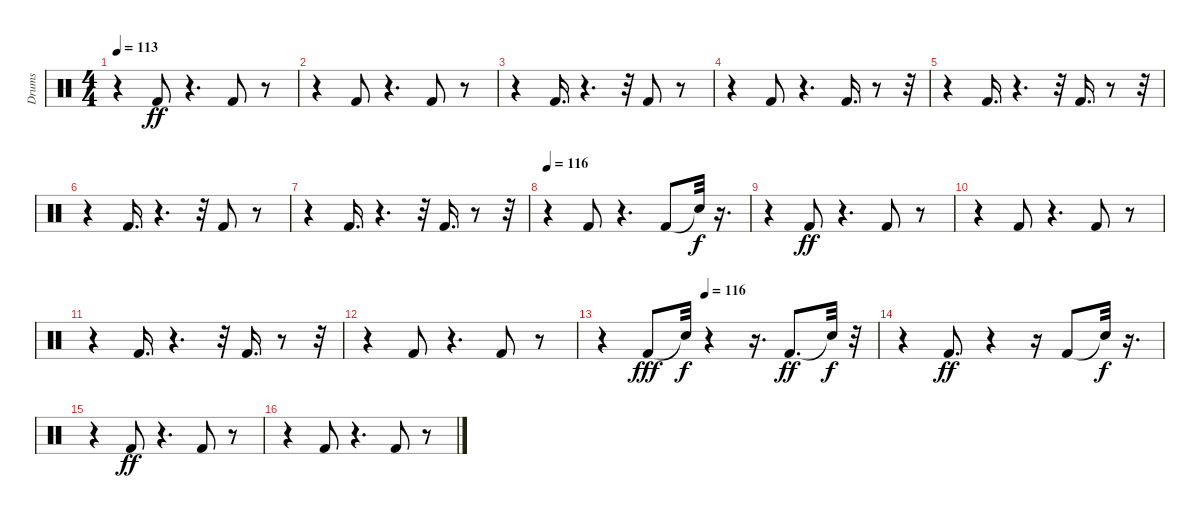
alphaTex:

\track ("Drums" "Drums") {instrument percussion}
\staff {score}
\articulation defaults
\ts (4 4)
\tempo 113
\clef neutral
\ks c
r.4{dy ff} "Kick (hit) 2".8 r.4{d} "Kick (hit) 2".8 r.8 |
r.4 "Kick (hit) 2".8 r.4{d} "Kick (hit) 2".8 r.8 |
r.4 "Kick (hit) 2".16{d} r.4{d} r.32 "Kick (hit) 2".8 r.8 |
r.4 "Kick (hit) 2".8 r.4{d} "Kick (hit) 2".16{d} r.8 r.32 |
r.4 "Kick (hit) 2".16{d} r.4{d} r.32 "Kick (hit) 2".16{d} r.8 r.32 |
r.4 "Kick (hit) 2".16{d} r.4{d} r.32 "Kick (hit) 2".8 r.8 |
r.4 "Kick (hit) 2".16{d} r.4{d} r.32 "Kick (hit) 2".16{d} r.8 r.32 |
\tempo 116
r.4 "Kick (hit) 2".8 r.4{d} "Kick (hit) 2".8 "Snare (hit)"{t}.32{dy f} r.16{d} |
r.4 "Kick (hit) 2".8{dy ff} r.4{d} "Kick (hit) 2".8 r.8 |
r.4 "Kick (hit) 2".8 r.4{d} "Kick (hit) 2".8 r.8 |
r.4 "Kick (hit) 2".16{d} r.4{d} r.32 "Kick (hit) 2".16{d} r.8 r.32 |
r.4 "Kick (hit) 2".8 r.4{d} "Kick (hit) 2".8 r.8 |
\tempo (116 0.375)
r.4 "Kick (hit) 2".8{dy fff} "Snare (hit)"{t}.32{dy f} r.4 r.16{d} "Kick (hit) 2".8{d dy ff} "Snare (hit)"{t}.32{dy f} r.32 |
r.4 "Kick (hit) 2".8{d dy ff} r.4 r.16 "Kick (hit) 2".8 "Snare (hit)"{t}.32{dy f} r.16{d} |
r.4 "Kick (hit) 2".8{dy ff} r.4{d} "Kick (hit) 2".8 r.8 |
r.4 "Kick (hit) 2".8 r.4{d} "Kick (hit) 2".8 r.8
